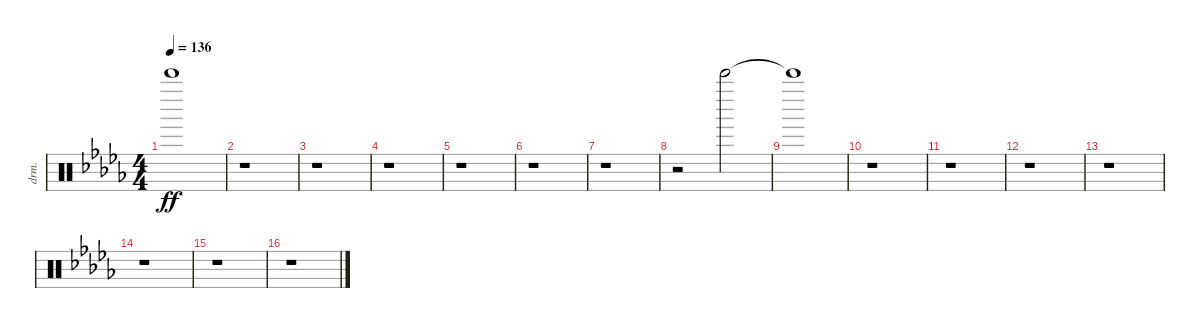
\bracketExtendMode nobrackets
\track ("Wind Chimes" "drm.") {instrument percussion}
\staff {score}
\articulation defaults
\ts (4 4)
\tempo 136
\clef neutral
\ks db "Bell Tree (hit)"{t acc forcenatural}.1{dy ff beam Down}
|
r.1{beam Down} |
r.1{beam Down} |
r.1{beam Down} |
r.1{beam Down} |
r.1{beam Down} |
r.1{beam Down} |
r.2{beam Down} "Bell Tree (hit)"{acc forcenatural}.2{beam Down} |
"Bell Tree (hit)"{t acc forcenatural}.1{beam Down} |
r.1{beam Down} |
r.1{beam Down} |
r.1{beam Down} |
r.1{beam Down} |
r.1{beam Down} |
r.1{beam Down} |
r.1{beam Down}
